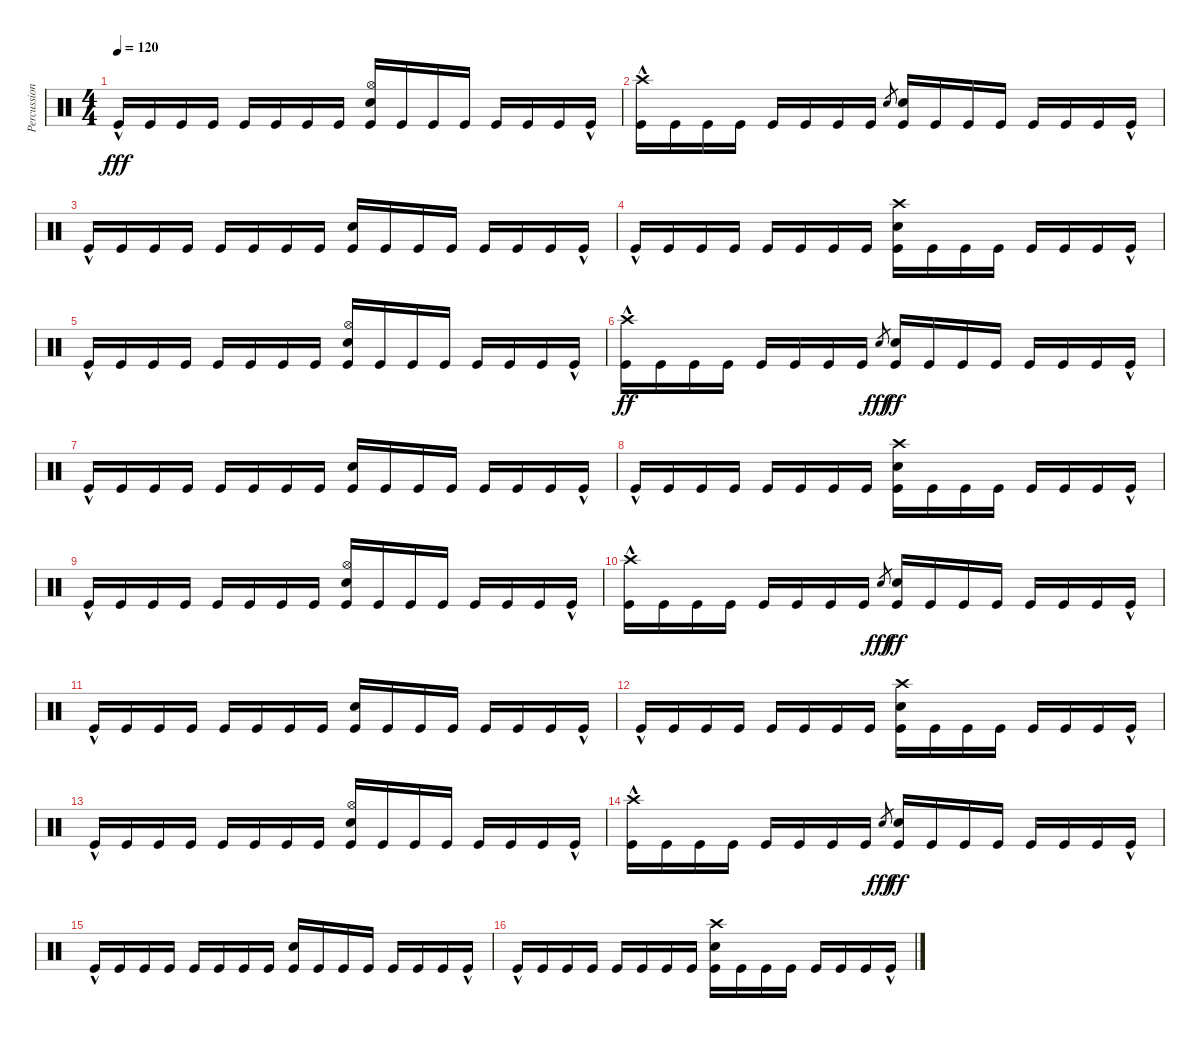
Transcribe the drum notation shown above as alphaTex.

\track ("Percussion" "Percussion") {instrument percussion}
\staff {score}
\articulation defaults
\ts (4 4)
\tempo 120
\clef neutral
\ks c "Kick (hit)"{hac}.16{dy fff} "Kick (hit)".16 "Kick (hit)".16 "Kick (hit)".16 "Kick (hit)".16 "Kick (hit)".16 "Kick (hit)".16 "Kick (hit)".16
("Hi-Hat (open)" "Snare (hit) 2" "Kick (hit)").16 "Kick (hit)".16 "Kick (hit)".16 "Kick (hit)".16 "Kick (hit)".16 "Kick (hit)".16 "Kick (hit)".16 "Kick (hit)"{hac}.16 |
("Crash high (hit)"{hac} "Kick (hit)").16 "Kick (hit)".16 "Kick (hit)".16 "Kick (hit)".16 "Kick (hit)".16 "Kick (hit)".16 "Kick (hit)".16 "Kick (hit)".16 "Snare (hit) 2".8{gr} ("Snare (hit) 2" "Kick (hit)").16 "Kick (hit)".16 "Kick (hit)".16 "Kick (hit)".16 "Kick (hit)".16 "Kick (hit)".16 "Kick (hit)".16 "Kick (hit)"{hac}.16 |
"Kick (hit)"{hac}.16 "Kick (hit)".16 "Kick (hit)".16 "Kick (hit)".16 "Kick (hit)".16 "Kick (hit)".16 "Kick (hit)".16 "Kick (hit)".16 ("Snare (hit) 2" "Kick (hit)").16 "Kick (hit)".16 "Kick (hit)".16 "Kick (hit)".16 "Kick (hit)".16 "Kick (hit)".16 "Kick (hit)".16 "Kick (hit)"{hac}.16 |
"Kick (hit)"{hac}.16 "Kick (hit)".16 "Kick (hit)".16 "Kick (hit)".16 "Kick (hit)".16 "Kick (hit)".16 "Kick (hit)".16 "Kick (hit)".16 ("Crash high (hit)" "Snare (hit) 2" "Kick (hit)").16 "Kick (hit)".16 "Kick (hit)".16 "Kick (hit)".16 "Kick (hit)".16 "Kick (hit)".16 "Kick (hit)".16 "Kick (hit)"{hac}.16 |
"Kick (hit)"{hac}.16 "Kick (hit)".16 "Kick (hit)".16 "Kick (hit)".16 "Kick (hit)".16 "Kick (hit)".16 "Kick (hit)".16 "Kick (hit)".16 ("Hi-Hat (open)" "Snare (hit) 2" "Kick (hit)").16 "Kick (hit)".16 "Kick (hit)".16 "Kick (hit)".16 "Kick (hit)".16 "Kick (hit)".16 "Kick (hit)".16 "Kick (hit)"{hac}.16 |
("Crash high (hit)"{hac} "Kick (hit)").16{dy ff} "Kick (hit)".16 "Kick (hit)".16 "Kick (hit)".16 "Kick (hit)".16 "Kick (hit)".16 "Kick (hit)".16 "Kick (hit)".16 "Snare (hit) 2".8{gr dy fff} ("Snare (hit) 2" "Kick (hit)").16{dy ff} "Kick (hit)".16 "Kick (hit)".16 "Kick (hit)".16 "Kick (hit)".16 "Kick (hit)".16 "Kick (hit)".16 "Kick (hit)"{hac}.16 |
"Kick (hit)"{hac}.16 "Kick (hit)".16 "Kick (hit)".16 "Kick (hit)".16 "Kick (hit)".16 "Kick (hit)".16 "Kick (hit)".16 "Kick (hit)".16 ("Snare (hit) 2" "Kick (hit)").16 "Kick (hit)".16 "Kick (hit)".16 "Kick (hit)".16 "Kick (hit)".16 "Kick (hit)".16 "Kick (hit)".16 "Kick (hit)"{hac}.16 |
"Kick (hit)"{hac}.16 "Kick (hit)".16 "Kick (hit)".16 "Kick (hit)".16 "Kick (hit)".16 "Kick (hit)".16 "Kick (hit)".16 "Kick (hit)".16 ("Crash high (hit)" "Snare (hit) 2" "Kick (hit)").16 "Kick (hit)".16 "Kick (hit)".16 "Kick (hit)".16 "Kick (hit)".16 "Kick (hit)".16 "Kick (hit)".16 "Kick (hit)"{hac}.16 |
"Kick (hit)"{hac}.16 "Kick (hit)".16 "Kick (hit)".16 "Kick (hit)".16 "Kick (hit)".16 "Kick (hit)".16 "Kick (hit)".16 "Kick (hit)".16 ("Hi-Hat (open)" "Snare (hit) 2" "Kick (hit)").16 "Kick (hit)".16 "Kick (hit)".16 "Kick (hit)".16 "Kick (hit)".16 "Kick (hit)".16 "Kick (hit)".16 "Kick (hit)"{hac}.16 |
("Crash high (hit)"{hac} "Kick (hit)").16 "Kick (hit)".16 "Kick (hit)".16 "Kick (hit)".16 "Kick (hit)".16 "Kick (hit)".16 "Kick (hit)".16 "Kick (hit)".16 "Snare (hit) 2".8{gr dy fff} ("Snare (hit) 2" "Kick (hit)").16{dy ff} "Kick (hit)".16 "Kick (hit)".16 "Kick (hit)".16 "Kick (hit)".16 "Kick (hit)".16 "Kick (hit)".16 "Kick (hit)"{hac}.16 |
"Kick (hit)"{hac}.16 "Kick (hit)".16 "Kick (hit)".16 "Kick (hit)".16 "Kick (hit)".16 "Kick (hit)".16 "Kick (hit)".16 "Kick (hit)".16 ("Snare (hit) 2" "Kick (hit)").16 "Kick (hit)".16 "Kick (hit)".16 "Kick (hit)".16 "Kick (hit)".16 "Kick (hit)".16 "Kick (hit)".16 "Kick (hit)"{hac}.16 |
"Kick (hit)"{hac}.16 "Kick (hit)".16 "Kick (hit)".16 "Kick (hit)".16 "Kick (hit)".16 "Kick (hit)".16 "Kick (hit)".16 "Kick (hit)".16 ("Crash high (hit)" "Snare (hit) 2" "Kick (hit)").16 "Kick (hit)".16 "Kick (hit)".16 "Kick (hit)".16 "Kick (hit)".16 "Kick (hit)".16 "Kick (hit)".16 "Kick (hit)"{hac}.16 |
"Kick (hit)"{hac}.16 "Kick (hit)".16 "Kick (hit)".16 "Kick (hit)".16 "Kick (hit)".16 "Kick (hit)".16 "Kick (hit)".16 "Kick (hit)".16 ("Hi-Hat (open)" "Snare (hit) 2" "Kick (hit)").16 "Kick (hit)".16 "Kick (hit)".16 "Kick (hit)".16 "Kick (hit)".16 "Kick (hit)".16 "Kick (hit)".16 "Kick (hit)"{hac}.16 |
("Crash high (hit)"{hac} "Kick (hit)").16 "Kick (hit)".16 "Kick (hit)".16 "Kick (hit)".16 "Kick (hit)".16 "Kick (hit)".16 "Kick (hit)".16 "Kick (hit)".16 "Snare (hit) 2".8{gr dy fff} ("Snare (hit) 2" "Kick (hit)").16{dy ff} "Kick (hit)".16 "Kick (hit)".16 "Kick (hit)".16 "Kick (hit)".16 "Kick (hit)".16 "Kick (hit)".16 "Kick (hit)"{hac}.16 |
"Kick (hit)"{hac}.16 "Kick (hit)".16 "Kick (hit)".16 "Kick (hit)".16 "Kick (hit)".16 "Kick (hit)".16 "Kick (hit)".16 "Kick (hit)".16 ("Snare (hit) 2" "Kick (hit)").16 "Kick (hit)".16 "Kick (hit)".16 "Kick (hit)".16 "Kick (hit)".16 "Kick (hit)".16 "Kick (hit)".16 "Kick (hit)"{hac}.16 |
"Kick (hit)"{hac}.16 "Kick (hit)".16 "Kick (hit)".16 "Kick (hit)".16 "Kick (hit)".16 "Kick (hit)".16 "Kick (hit)".16 "Kick (hit)".16 ("Crash high (hit)" "Snare (hit) 2" "Kick (hit)").16 "Kick (hit)".16 "Kick (hit)".16 "Kick (hit)".16 "Kick (hit)".16 "Kick (hit)".16 "Kick (hit)".16 "Kick (hit)"{hac}.16
